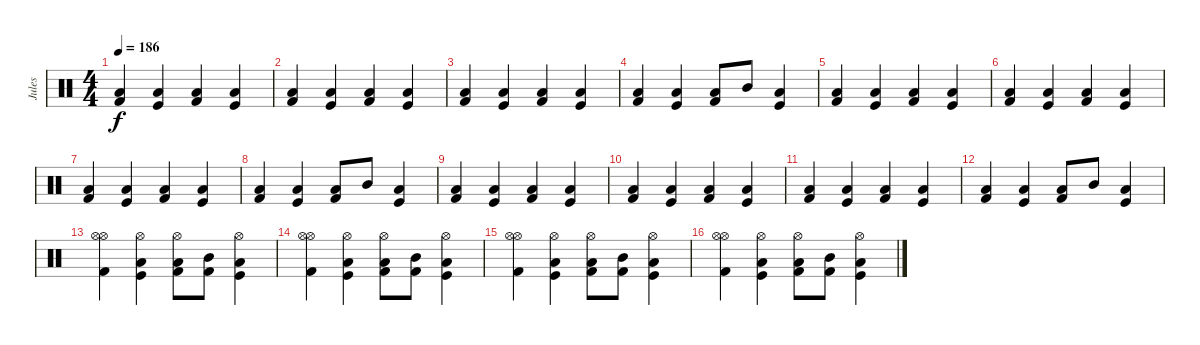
\track ("Jules" "Jules") {instrument percussion}
\staff {score}
\articulation defaults
\ts (4 4)
\tempo 186
\clef neutral
\ks c
("Kick (hit) 2" "Low Floor Tom (hit)").4{dy f} ("Kick (hit)" "Low Floor Tom (hit)").4 ("Kick (hit) 2" "Low Floor Tom (hit)").4 ("Kick (hit)" "Low Floor Tom (hit)").4 |
("Kick (hit) 2" "Low Floor Tom (hit)").4 ("Kick (hit)" "Low Floor Tom (hit)").4 ("Kick (hit) 2" "Low Floor Tom (hit)").4 ("Kick (hit)" "Low Floor Tom (hit)").4 |
("Kick (hit) 2" "Low Floor Tom (hit)").4 ("Kick (hit)" "Low Floor Tom (hit)").4 ("Kick (hit) 2" "Low Floor Tom (hit)").4 ("Kick (hit)" "Low Floor Tom (hit)").4 |
("Kick (hit) 2" "Low Floor Tom (hit)").4 ("Kick (hit)" "Low Floor Tom (hit)").4 ("Kick (hit) 2" "Low Floor Tom (hit)").8 "Mid Tom (hit)".8 ("Kick (hit)" "Low Floor Tom (hit)").4 |
("Kick (hit) 2" "Low Floor Tom (hit)").4 ("Kick (hit)" "Low Floor Tom (hit)").4 ("Kick (hit) 2" "Low Floor Tom (hit)").4 ("Kick (hit)" "Low Floor Tom (hit)").4 |
("Kick (hit) 2" "Low Floor Tom (hit)").4 ("Kick (hit)" "Low Floor Tom (hit)").4 ("Kick (hit) 2" "Low Floor Tom (hit)").4 ("Kick (hit)" "Low Floor Tom (hit)").4 |
("Kick (hit) 2" "Low Floor Tom (hit)").4 ("Kick (hit)" "Low Floor Tom (hit)").4 ("Kick (hit) 2" "Low Floor Tom (hit)").4 ("Kick (hit)" "Low Floor Tom (hit)").4 |
("Kick (hit) 2" "Low Floor Tom (hit)").4 ("Kick (hit)" "Low Floor Tom (hit)").4 ("Kick (hit) 2" "Low Floor Tom (hit)").8 "Mid Tom (hit)".8 ("Kick (hit)" "Low Floor Tom (hit)").4 |
("Kick (hit) 2" "Low Floor Tom (hit)").4 ("Kick (hit)" "Low Floor Tom (hit)").4 ("Kick (hit) 2" "Low Floor Tom (hit)").4 ("Kick (hit)" "Low Floor Tom (hit)").4 |
("Kick (hit) 2" "Low Floor Tom (hit)").4 ("Kick (hit)" "Low Floor Tom (hit)").4 ("Kick (hit) 2" "Low Floor Tom (hit)").4 ("Kick (hit)" "Low Floor Tom (hit)").4 |
("Kick (hit) 2" "Low Floor Tom (hit)").4 ("Kick (hit)" "Low Floor Tom (hit)").4 ("Kick (hit) 2" "Low Floor Tom (hit)").4 ("Kick (hit)" "Low Floor Tom (hit)").4 |
("Kick (hit) 2" "Low Floor Tom (hit)").4 ("Kick (hit)" "Low Floor Tom (hit)").4 ("Kick (hit) 2" "Low Floor Tom (hit)").8 "Mid Tom (hit)".8 ("Kick (hit)" "Low Floor Tom (hit)").4 |
("Kick (hit) 2" "Hi-Hat (open)" "Hi-Hat (open)").4 ("Kick (hit)" "Low Floor Tom (hit)" "Hi-Hat (open)").4 ("Kick (hit) 2" "Hi-Hat (open)" "Low Floor Tom (hit)").8 ("Mid Tom (hit)" "Kick (hit) 2").8 ("Kick (hit)" "Low Floor Tom (hit)" "Hi-Hat (open)").4 |
("Kick (hit) 2" "Hi-Hat (open)" "Hi-Hat (open)").4 ("Kick (hit)" "Low Floor Tom (hit)" "Hi-Hat (open)").4 ("Kick (hit) 2" "Hi-Hat (open)" "Low Floor Tom (hit)").8 ("Mid Tom (hit)" "Kick (hit) 2").8 ("Kick (hit)" "Low Floor Tom (hit)" "Hi-Hat (open)").4 |
("Kick (hit) 2" "Hi-Hat (open)" "Hi-Hat (open)").4 ("Kick (hit)" "Low Floor Tom (hit)" "Hi-Hat (open)").4 ("Kick (hit) 2" "Hi-Hat (open)" "Low Floor Tom (hit)").8 ("Mid Tom (hit)" "Kick (hit) 2").8 ("Kick (hit)" "Low Floor Tom (hit)" "Hi-Hat (open)").4 |
("Kick (hit) 2" "Hi-Hat (open)" "Hi-Hat (open)").4 ("Kick (hit)" "Low Floor Tom (hit)" "Hi-Hat (open)").4 ("Kick (hit) 2" "Hi-Hat (open)" "Low Floor Tom (hit)").8 ("Mid Tom (hit)" "Kick (hit) 2").8 ("Kick (hit)" "Low Floor Tom (hit)" "Hi-Hat (open)").4
